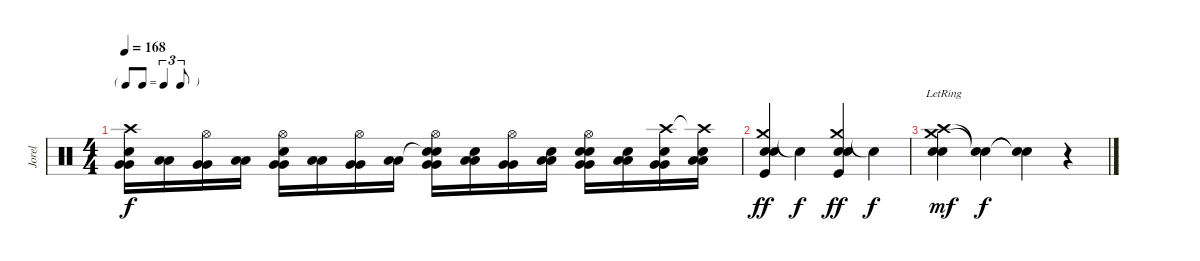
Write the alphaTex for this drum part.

\track ("Jorel" "Jorel") {instrument percussion}
\staff {score}
\articulation defaults
\ts (4 4)
\tf triplet8th
\tempo 168
\clef neutral
\ks c
("Crash high (hit)" "Electric Snare (hit)" "Very Low Tom (hit)" "Very Low Tom (hit)").16{dy f} ("Low Floor Tom (hit)" "Low Floor Tom (hit)").16 ("Hi-Hat (open)" "Very Low Tom (hit)" "Very Low Tom (hit)").16 ("Low Floor Tom (hit)" "Low Floor Tom (hit)").16 ("Hi-Hat (open)" "Electric Snare (hit)" "Very Low Tom (hit)" "Very Low Tom (hit)").16 ("Low Floor Tom (hit)" "Low Floor Tom (hit)").16 ("Hi-Hat (open)" "Very Low Tom (hit)" "Very Low Tom (hit)").16 ("Low Floor Tom (hit)" "Low Floor Tom (hit)").16 ("Snare (hit)"{t} "Hi-Hat (open)" "Electric Snare (hit)" "Very Low Tom (hit)" "Very Low Tom (hit)").16 ("Snare (hit) 2" "Low Floor Tom (hit)" "Low Floor Tom (hit)").16 ("Hi-Hat (open)" "Very Low Tom (hit)" "Very Low Tom (hit)").16 ("Snare (hit) 2" "Low Floor Tom (hit)" "Low Floor Tom (hit)").16 ("Hi-Hat (open)" "Electric Snare (hit)" "Snare (hit) 2" "Very Low Tom (hit)" "Very Low Tom (hit)").16 ("Snare (hit) 2" "Low Floor Tom (hit)" "Low Floor Tom (hit)").16 ("Crash high (hit)" "Snare (hit) 2" "Very Low Tom (hit)" "Very Low Tom (hit)").16 ("Crash high (hit)"{t} "Snare (hit) 2" "Low Floor Tom (hit)" "Low Floor Tom (hit)").16 |
("Crash medium (hit)" "Electric Snare (hit)" "Snare (hit) 2" "Kick (hit)").4{dy ff} "Snare (hit)"{t}.4{dy f} ("Crash medium (hit)" "Electric Snare (hit)" "Snare (hit) 2" "Kick (hit)").4{dy ff} "Snare (hit)"{t}.4{dy f} |
("Crash medium (hit)"{lr} "Crash high (hit)"{lr} "Snare (hit) 2" "Electric Snare (hit)").4{dy mf volume 16} ("Snare (hit)"{t} "Snare (hit)"{t}).4{dy f} ("Snare (hit)"{t} "Snare (hit)"{t}).4 r.4
